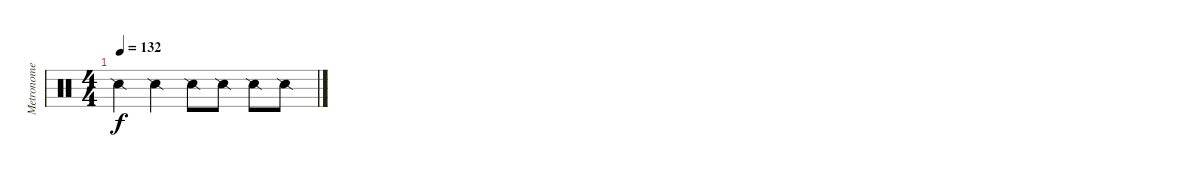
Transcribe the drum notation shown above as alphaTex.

\track ("Metronome" "Metronome") {instrument percussion}
\staff {score}
\articulation defaults
\ts (4 4)
\tempo 132
\clef neutral
\ks c "Snare (side stick) 2".4{dy f} "Snare (side stick) 2".4 "Snare (side stick) 2".8 "Snare (side stick) 2".8 "Snare (side stick) 2".8 "Snare (side stick) 2".8
